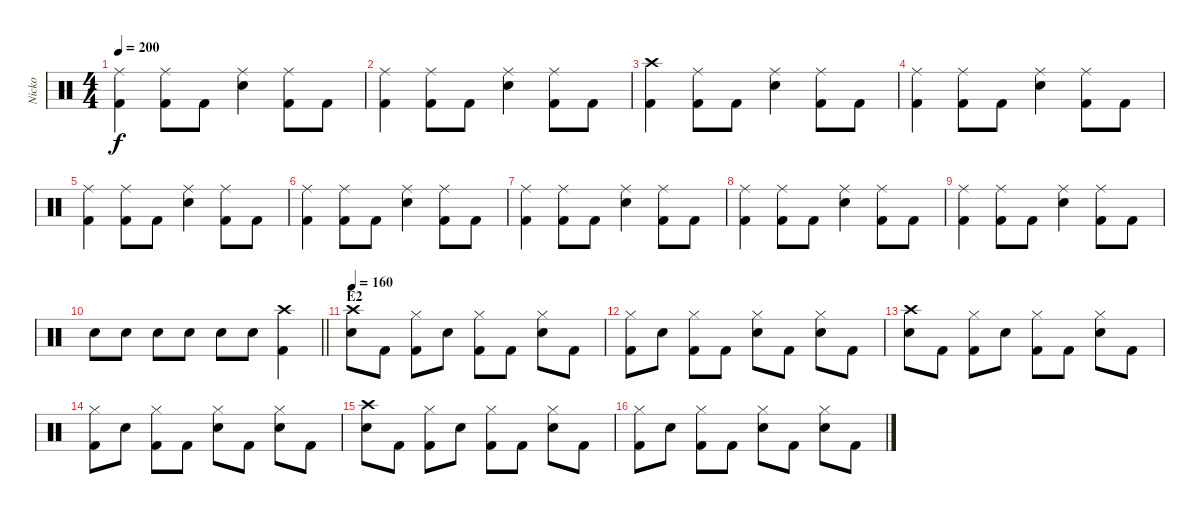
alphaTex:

\track ("Nicko" "Nicko") {instrument percussion}
\staff {score}
\articulation defaults
\ts (4 4)
\tempo 200
\clef neutral
\ks c
("Ride (middle)" "Kick (hit) 2").4{dy f} ("Ride (middle)" "Kick (hit) 2").8 "Kick (hit) 2".8 ("Ride (middle)" "Snare (hit) 2").4 ("Ride (middle)" "Kick (hit) 2").8 "Kick (hit) 2".8 |
("Ride (middle)" "Kick (hit) 2").4 ("Ride (middle)" "Kick (hit) 2").8 "Kick (hit) 2".8 ("Ride (middle)" "Snare (hit) 2").4 ("Ride (middle)" "Kick (hit) 2").8 "Kick (hit) 2".8 |
("Crash high (hit)" "Kick (hit) 2").4 ("Ride (middle)" "Kick (hit) 2").8 "Kick (hit) 2".8 ("Ride (middle)" "Snare (hit) 2").4 ("Ride (middle)" "Kick (hit) 2").8 "Kick (hit) 2".8 |
("Ride (middle)" "Kick (hit) 2").4 ("Ride (middle)" "Kick (hit) 2").8 "Kick (hit) 2".8 ("Ride (middle)" "Snare (hit) 2").4 ("Ride (middle)" "Kick (hit) 2").8 "Kick (hit) 2".8 |
("Ride (middle)" "Kick (hit) 2").4 ("Ride (middle)" "Kick (hit) 2").8 "Kick (hit) 2".8 ("Ride (middle)" "Snare (hit) 2").4 ("Ride (middle)" "Kick (hit) 2").8 "Kick (hit) 2".8 |
("Ride (middle)" "Kick (hit) 2").4 ("Ride (middle)" "Kick (hit) 2").8 "Kick (hit) 2".8 ("Ride (middle)" "Snare (hit) 2").4 ("Ride (middle)" "Kick (hit) 2").8 "Kick (hit) 2".8 |
("Ride (middle)" "Kick (hit) 2").4 ("Ride (middle)" "Kick (hit) 2").8 "Kick (hit) 2".8 ("Ride (middle)" "Snare (hit) 2").4 ("Ride (middle)" "Kick (hit) 2").8 "Kick (hit) 2".8 |
("Ride (middle)" "Kick (hit) 2").4 ("Ride (middle)" "Kick (hit) 2").8 "Kick (hit) 2".8 ("Ride (middle)" "Snare (hit) 2").4 ("Ride (middle)" "Kick (hit) 2").8 "Kick (hit) 2".8 |
("Ride (middle)" "Kick (hit) 2").4 ("Ride (middle)" "Kick (hit) 2").8 "Kick (hit) 2".8 ("Ride (middle)" "Snare (hit) 2").4 ("Ride (middle)" "Kick (hit) 2").8 "Kick (hit) 2".8 |
\barLineRight lightlight "Snare (hit) 2".8 "Snare (hit) 2".8 "Snare (hit) 2".8 "Snare (hit) 2".8 "Snare (hit) 2".8 "Snare (hit) 2".8
("Crash high (hit)" "Kick (hit) 2").4 |
\section ("" "E2")
\tempo 160
("Crash high (hit)" "Snare (hit) 2").8 "Kick (hit) 2".8 ("Hi-Hat (closed)" "Kick (hit) 2").8 "Snare (hit) 2".8 ("Hi-Hat (closed)" "Kick (hit) 2").8 "Kick (hit) 2".8 ("Hi-Hat (closed)" "Snare (hit) 2").8 "Kick (hit) 2".8 |
("Hi-Hat (closed)" "Kick (hit) 2").8 "Snare (hit) 2".8 ("Hi-Hat (closed)" "Kick (hit) 2").8 "Kick (hit) 2".8 ("Hi-Hat (closed)" "Snare (hit) 2").8 "Kick (hit) 2".8 ("Hi-Hat (closed)" "Snare (hit) 2").8 "Kick (hit) 2".8 |
("Crash high (hit)" "Snare (hit) 2").8 "Kick (hit) 2".8 ("Hi-Hat (closed)" "Kick (hit) 2").8 "Snare (hit) 2".8 ("Hi-Hat (closed)" "Kick (hit) 2").8 "Kick (hit) 2".8 ("Hi-Hat (closed)" "Snare (hit) 2").8 "Kick (hit) 2".8 |
("Hi-Hat (closed)" "Kick (hit) 2").8 "Snare (hit) 2".8 ("Hi-Hat (closed)" "Kick (hit) 2").8 "Kick (hit) 2".8 ("Hi-Hat (closed)" "Snare (hit) 2").8 "Kick (hit) 2".8 ("Hi-Hat (closed)" "Snare (hit) 2").8 "Kick (hit) 2".8 |
("Crash high (hit)" "Snare (hit) 2").8 "Kick (hit) 2".8 ("Hi-Hat (closed)" "Kick (hit) 2").8 "Snare (hit) 2".8 ("Hi-Hat (closed)" "Kick (hit) 2").8 "Kick (hit) 2".8 ("Hi-Hat (closed)" "Snare (hit) 2").8 "Kick (hit) 2".8 |
("Hi-Hat (closed)" "Kick (hit) 2").8 "Snare (hit) 2".8 ("Hi-Hat (closed)" "Kick (hit) 2").8 "Kick (hit) 2".8 ("Hi-Hat (closed)" "Snare (hit) 2").8 "Kick (hit) 2".8 ("Hi-Hat (closed)" "Snare (hit) 2").8 "Kick (hit) 2".8
